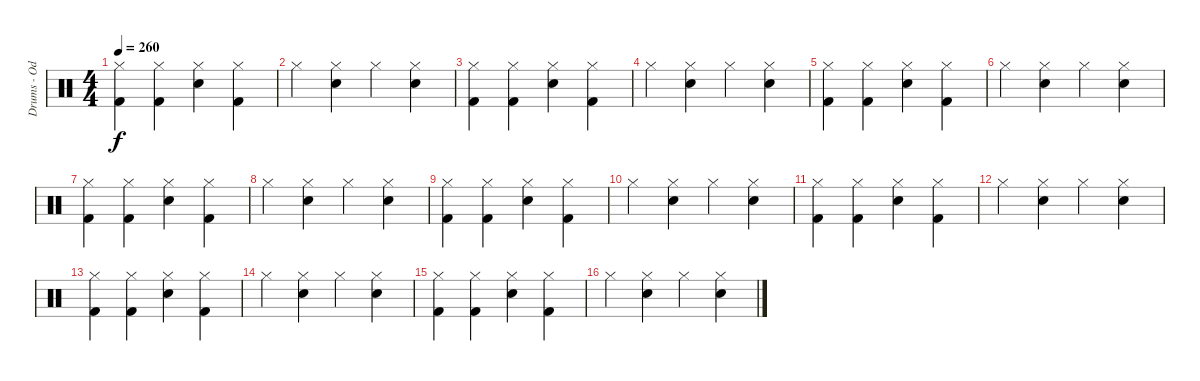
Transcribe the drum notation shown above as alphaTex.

\track ("Drums - Oded Perach" "Drums - Od") {instrument percussion}
\staff {score}
\articulation defaults
\ts (4 4)
\tempo 260
\clef neutral
\ks c
("Hi-Hat (closed)" "Kick (hit) 2").4{dy f} ("Hi-Hat (closed)" "Kick (hit) 2").4 ("Hi-Hat (closed)" "Snare (hit) 2").4 ("Hi-Hat (closed)" "Kick (hit) 2").4 |
"Hi-Hat (closed)".4 ("Hi-Hat (closed)" "Snare (hit) 2").4 "Hi-Hat (closed)".4 ("Hi-Hat (closed)" "Snare (hit) 2").4 |
("Hi-Hat (closed)" "Kick (hit) 2").4 ("Hi-Hat (closed)" "Kick (hit) 2").4 ("Hi-Hat (closed)" "Snare (hit) 2").4 ("Hi-Hat (closed)" "Kick (hit) 2").4 |
"Hi-Hat (closed)".4 ("Hi-Hat (closed)" "Snare (hit) 2").4 "Hi-Hat (closed)".4 ("Hi-Hat (closed)" "Snare (hit) 2").4 |
("Hi-Hat (closed)" "Kick (hit) 2").4 ("Hi-Hat (closed)" "Kick (hit) 2").4 ("Hi-Hat (closed)" "Snare (hit) 2").4 ("Hi-Hat (closed)" "Kick (hit) 2").4 |
"Hi-Hat (closed)".4 ("Hi-Hat (closed)" "Snare (hit) 2").4 "Hi-Hat (closed)".4 ("Hi-Hat (closed)" "Snare (hit) 2").4 |
("Hi-Hat (closed)" "Kick (hit) 2").4 ("Hi-Hat (closed)" "Kick (hit) 2").4 ("Hi-Hat (closed)" "Snare (hit) 2").4 ("Hi-Hat (closed)" "Kick (hit) 2").4 |
"Hi-Hat (closed)".4 ("Hi-Hat (closed)" "Snare (hit) 2").4 "Hi-Hat (closed)".4 ("Hi-Hat (closed)" "Snare (hit) 2").4 |
("Hi-Hat (closed)" "Kick (hit) 2").4 ("Hi-Hat (closed)" "Kick (hit) 2").4 ("Hi-Hat (closed)" "Snare (hit) 2").4 ("Hi-Hat (closed)" "Kick (hit) 2").4 |
"Hi-Hat (closed)".4 ("Hi-Hat (closed)" "Snare (hit) 2").4 "Hi-Hat (closed)".4 ("Hi-Hat (closed)" "Snare (hit) 2").4 |
("Hi-Hat (closed)" "Kick (hit) 2").4 ("Hi-Hat (closed)" "Kick (hit) 2").4 ("Hi-Hat (closed)" "Snare (hit) 2").4 ("Hi-Hat (closed)" "Kick (hit) 2").4 |
"Hi-Hat (closed)".4 ("Hi-Hat (closed)" "Snare (hit) 2").4 "Hi-Hat (closed)".4 ("Hi-Hat (closed)" "Snare (hit) 2").4 |
("Hi-Hat (closed)" "Kick (hit) 2").4 ("Hi-Hat (closed)" "Kick (hit) 2").4 ("Hi-Hat (closed)" "Snare (hit) 2").4 ("Hi-Hat (closed)" "Kick (hit) 2").4 |
"Hi-Hat (closed)".4 ("Hi-Hat (closed)" "Snare (hit) 2").4 "Hi-Hat (closed)".4 ("Hi-Hat (closed)" "Snare (hit) 2").4 |
("Hi-Hat (closed)" "Kick (hit) 2").4 ("Hi-Hat (closed)" "Kick (hit) 2").4 ("Hi-Hat (closed)" "Snare (hit) 2").4 ("Hi-Hat (closed)" "Kick (hit) 2").4 |
"Hi-Hat (closed)".4 ("Hi-Hat (closed)" "Snare (hit) 2").4 "Hi-Hat (closed)".4 ("Hi-Hat (closed)" "Snare (hit) 2").4
